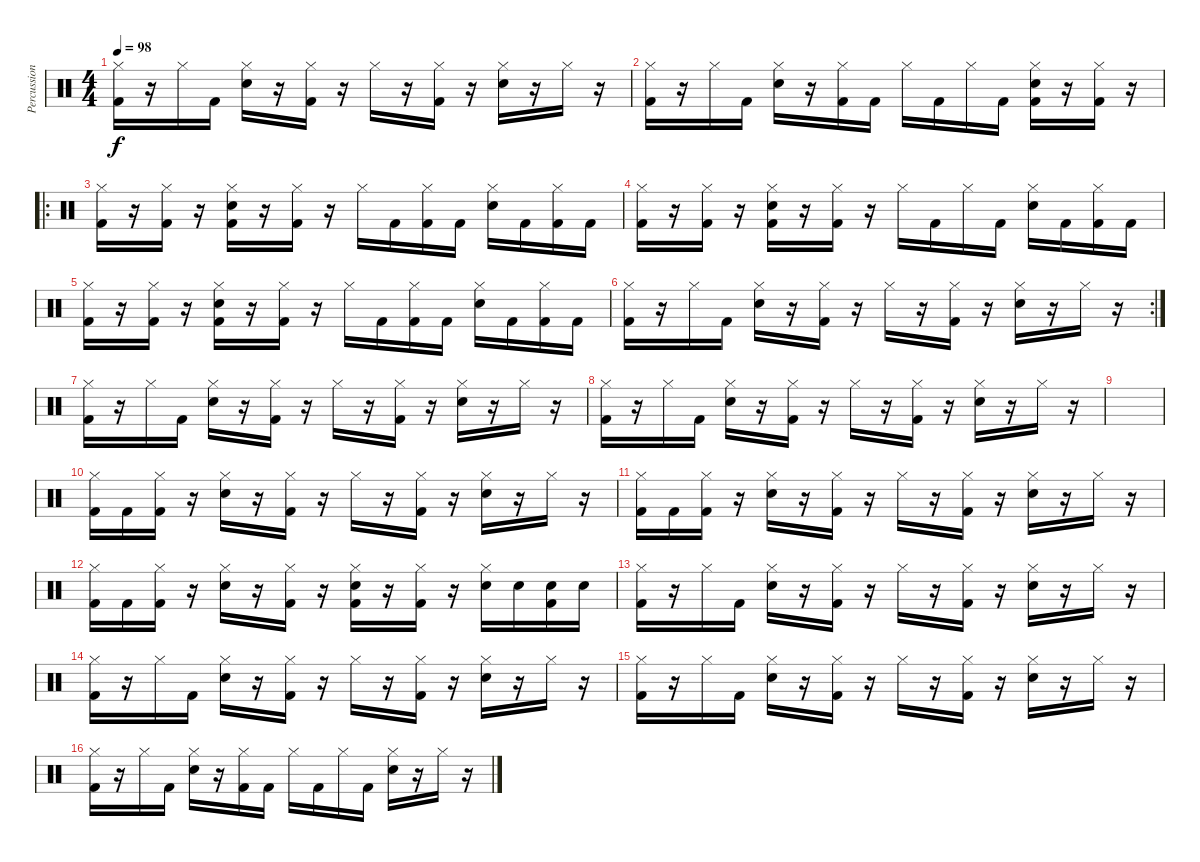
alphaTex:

\track ("Percussion" "Percussion") {instrument percussion}
\staff {score}
\articulation defaults
\ts (4 4)
\tempo 98
\clef neutral
\ks c
("Kick (hit) 2" "Hi-Hat (closed)").16{dy f} r.16 "Hi-Hat (closed)".16 "Kick (hit) 2".16 ("Hi-Hat (closed)" "Snare (hit) 2").16 r.16 ("Kick (hit) 2" "Hi-Hat (closed)").16 r.16 "Hi-Hat (closed)".16 r.16 ("Kick (hit) 2" "Hi-Hat (closed)").16 r.16 ("Hi-Hat (closed)" "Snare (hit) 2").16 r.16 "Hi-Hat (closed)".16 r.16 |
("Kick (hit) 2" "Hi-Hat (closed)").16 r.16 "Hi-Hat (closed)".16 "Kick (hit) 2".16 ("Hi-Hat (closed)" "Snare (hit) 2").16 r.16 ("Kick (hit) 2" "Hi-Hat (closed)").16 "Kick (hit) 2".16 "Hi-Hat (closed)".16 "Kick (hit) 2".16 "Hi-Hat (closed)".16 "Kick (hit) 2".16 ("Kick (hit) 2" "Hi-Hat (closed)" "Snare (hit) 2").16 r.16 ("Kick (hit) 2" "Hi-Hat (closed)").16 r.16 |
\ro
("Kick (hit) 2" "Hi-Hat (closed)").16 r.16 ("Kick (hit) 2" "Hi-Hat (closed)").16 r.16 ("Kick (hit) 2" "Hi-Hat (closed)" "Snare (hit) 2").16 r.16 ("Kick (hit) 2" "Hi-Hat (closed)").16 r.16 "Hi-Hat (closed)".16 "Kick (hit) 2".16 ("Kick (hit) 2" "Hi-Hat (closed)").16 "Kick (hit) 2".16 ("Hi-Hat (closed)" "Snare (hit) 2").16 "Kick (hit) 2".16 ("Kick (hit) 2" "Hi-Hat (closed)").16 "Kick (hit) 2".16 |
("Kick (hit) 2" "Hi-Hat (closed)").16 r.16 ("Kick (hit) 2" "Hi-Hat (closed)").16 r.16 ("Kick (hit) 2" "Hi-Hat (closed)" "Snare (hit) 2").16 r.16 ("Kick (hit) 2" "Hi-Hat (closed)").16 r.16 "Hi-Hat (closed)".16 "Kick (hit) 2".16 "Hi-Hat (closed)".16 "Kick (hit) 2".16 ("Hi-Hat (closed)" "Snare (hit) 2").16 "Kick (hit) 2".16 ("Kick (hit) 2" "Hi-Hat (closed)").16 "Kick (hit) 2".16 |
("Kick (hit) 2" "Hi-Hat (closed)").16 r.16 ("Kick (hit) 2" "Hi-Hat (closed)").16 r.16 ("Kick (hit) 2" "Hi-Hat (closed)" "Snare (hit) 2").16 r.16 ("Kick (hit) 2" "Hi-Hat (closed)").16 r.16 "Hi-Hat (closed)".16 "Kick (hit) 2".16 ("Kick (hit) 2" "Hi-Hat (closed)").16 "Kick (hit) 2".16 ("Hi-Hat (closed)" "Snare (hit) 2").16 "Kick (hit) 2".16 ("Kick (hit) 2" "Hi-Hat (closed)").16 "Kick (hit) 2".16 |
\rc 2
("Kick (hit) 2" "Hi-Hat (closed)").16 r.16 "Hi-Hat (closed)".16 "Kick (hit) 2".16 ("Hi-Hat (closed)" "Snare (hit) 2").16 r.16 ("Kick (hit) 2" "Hi-Hat (closed)").16 r.16 "Hi-Hat (closed)".16 r.16 ("Kick (hit) 2" "Hi-Hat (closed)").16 r.16 ("Hi-Hat (closed)" "Snare (hit) 2").16 r.16 "Hi-Hat (closed)".16 r.16 |
("Kick (hit) 2" "Hi-Hat (closed)").16 r.16 "Hi-Hat (closed)".16 "Kick (hit) 2".16 ("Hi-Hat (closed)" "Snare (hit) 2").16 r.16 ("Kick (hit) 2" "Hi-Hat (closed)").16 r.16 "Hi-Hat (closed)".16 r.16 ("Kick (hit) 2" "Hi-Hat (closed)").16 r.16 ("Hi-Hat (closed)" "Snare (hit) 2").16 r.16 "Hi-Hat (closed)".16 r.16 |
("Kick (hit) 2" "Hi-Hat (closed)").16 r.16 "Hi-Hat (closed)".16 "Kick (hit) 2".16 ("Hi-Hat (closed)" "Snare (hit) 2").16 r.16 ("Kick (hit) 2" "Hi-Hat (closed)").16 r.16 "Hi-Hat (closed)".16 r.16 ("Kick (hit) 2" "Hi-Hat (closed)").16 r.16 ("Hi-Hat (closed)" "Snare (hit) 2").16 r.16 "Hi-Hat (closed)".16 r.16 |
|
("Kick (hit) 2" "Hi-Hat (closed)").16 "Kick (hit) 2".16 ("Kick (hit) 2" "Hi-Hat (closed)").16 r.16 ("Hi-Hat (closed)" "Snare (hit) 2").16 r.16 ("Kick (hit) 2" "Hi-Hat (closed)").16 r.16 "Hi-Hat (closed)".16 r.16 ("Kick (hit) 2" "Hi-Hat (closed)").16 r.16 ("Hi-Hat (closed)" "Snare (hit) 2").16 r.16 "Hi-Hat (closed)".16 r.16 |
("Kick (hit) 2" "Hi-Hat (closed)").16 "Kick (hit) 2".16 ("Kick (hit) 2" "Hi-Hat (closed)").16 r.16 ("Hi-Hat (closed)" "Snare (hit) 2").16 r.16 ("Kick (hit) 2" "Hi-Hat (closed)").16 r.16 "Hi-Hat (closed)".16 r.16 ("Kick (hit) 2" "Hi-Hat (closed)").16 r.16 ("Hi-Hat (closed)" "Snare (hit) 2").16 r.16 "Hi-Hat (closed)".16 r.16 |
("Kick (hit) 2" "Hi-Hat (closed)").16 "Kick (hit) 2".16 ("Kick (hit) 2" "Hi-Hat (closed)").16 r.16 ("Hi-Hat (closed)" "Snare (hit) 2").16 r.16 ("Kick (hit) 2" "Hi-Hat (closed)").16 r.16 ("Kick (hit) 2" "Hi-Hat (closed)" "Snare (hit) 2").16 r.16 ("Kick (hit) 2" "Hi-Hat (closed)").16 r.16 ("Hi-Hat (closed)" "Snare (hit) 2").16 "Snare (hit) 2".16 ("Kick (hit) 2" "Snare (hit) 2").16 "Snare (hit) 2".16 |
("Kick (hit) 2" "Hi-Hat (closed)").16 r.16 "Hi-Hat (closed)".16 "Kick (hit) 2".16 ("Hi-Hat (closed)" "Snare (hit) 2").16 r.16 ("Kick (hit) 2" "Hi-Hat (closed)").16 r.16 "Hi-Hat (closed)".16 r.16 ("Kick (hit) 2" "Hi-Hat (closed)").16 r.16 ("Hi-Hat (closed)" "Snare (hit) 2").16 r.16 "Hi-Hat (closed)".16 r.16 |
("Kick (hit) 2" "Hi-Hat (closed)").16 r.16 "Hi-Hat (closed)".16 "Kick (hit) 2".16 ("Hi-Hat (closed)" "Snare (hit) 2").16 r.16 ("Kick (hit) 2" "Hi-Hat (closed)").16 r.16 "Hi-Hat (closed)".16 r.16 ("Kick (hit) 2" "Hi-Hat (closed)").16 r.16 ("Hi-Hat (closed)" "Snare (hit) 2").16 r.16 "Hi-Hat (closed)".16 r.16 |
("Kick (hit) 2" "Hi-Hat (closed)").16 r.16 "Hi-Hat (closed)".16 "Kick (hit) 2".16 ("Hi-Hat (closed)" "Snare (hit) 2").16 r.16 ("Kick (hit) 2" "Hi-Hat (closed)").16 r.16 "Hi-Hat (closed)".16 r.16 ("Kick (hit) 2" "Hi-Hat (closed)").16 r.16 ("Hi-Hat (closed)" "Snare (hit) 2").16 r.16 "Hi-Hat (closed)".16 r.16 |
("Kick (hit) 2" "Hi-Hat (closed)").16 r.16 "Hi-Hat (closed)".16 "Kick (hit) 2".16 ("Hi-Hat (closed)" "Snare (hit) 2").16 r.16 ("Kick (hit) 2" "Hi-Hat (closed)").16 "Kick (hit) 2".16 "Hi-Hat (closed)".16 "Kick (hit) 2".16 "Hi-Hat (closed)".16 "Kick (hit) 2".16 ("Hi-Hat (closed)" "Snare (hit) 2").16 r.16 "Hi-Hat (closed)".16 r.16
